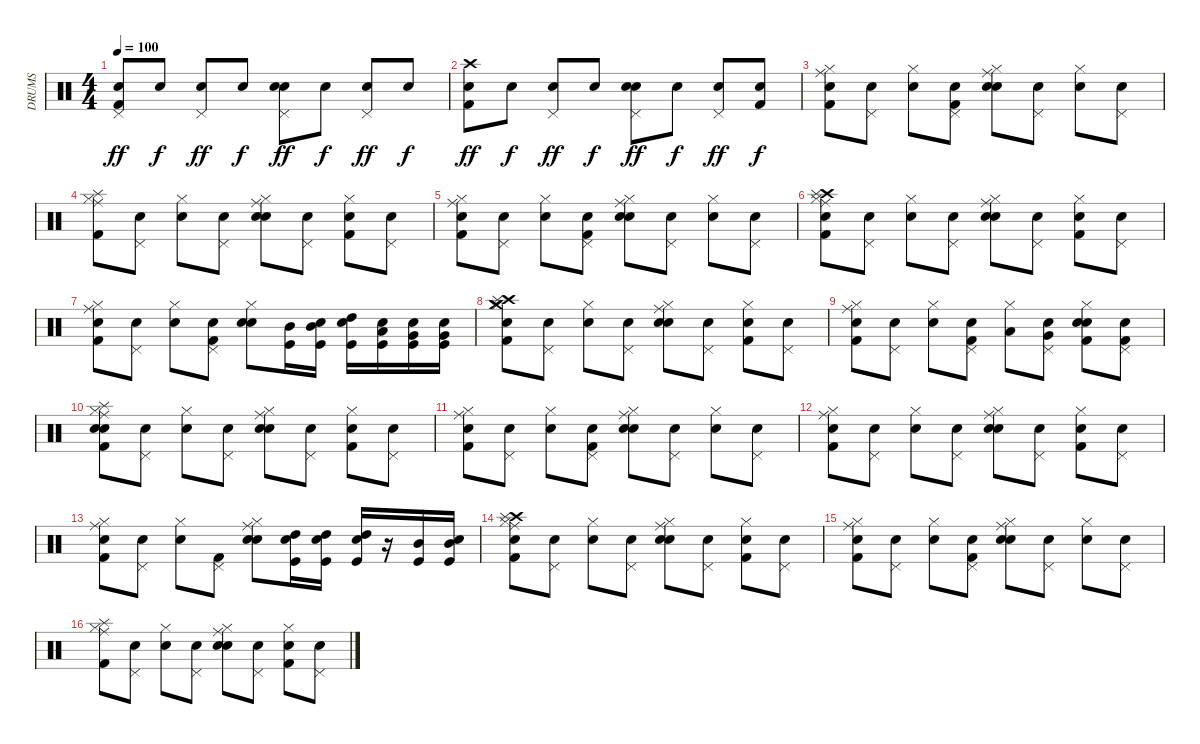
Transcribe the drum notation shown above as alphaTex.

\track ("DRUMS" "DRUMS") {instrument percussion}
\staff {score}
\articulation defaults
\ts (4 4)
\tempo 100
\clef neutral
\ks c
("Snare (hit)" "Kick (hit) 2" "Pedal Hi-Hat (hit)").8{dy ff} "Snare (hit)".8{dy f} ("Snare (hit)" "Pedal Hi-Hat (hit)").8{dy ff} "Snare (hit)".8{dy f} ("Snare (hit)" "Electric Snare (hit)" "Pedal Hi-Hat (hit)").8{dy ff} "Snare (hit)".8{dy f} ("Snare (hit)" "Pedal Hi-Hat (hit)").8{dy ff} "Snare (hit)".8{dy f} |
("Snare (hit)" "Kick (hit) 2" "Crash high (hit)").8{dy ff} "Snare (hit)".8{dy f} ("Snare (hit)" "Pedal Hi-Hat (hit)").8{dy ff} "Snare (hit)".8{dy f} ("Snare (hit)" "Electric Snare (hit)" "Pedal Hi-Hat (hit)").8{dy ff} "Snare (hit)".8{dy f} ("Snare (hit)" "Pedal Hi-Hat (hit)").8{dy ff} ("Snare (hit)" "Kick (hit) 2").8{dy f} |
("Snare (hit)" "Ride (middle)" "Hi-Hat (closed)" "Kick (hit) 2").8 ("Snare (hit)" "Pedal Hi-Hat (hit)").8 ("Snare (hit)" "Hi-Hat (closed)").8 ("Snare (hit)" "Pedal Hi-Hat (hit)" "Kick (hit) 2").8 ("Snare (hit)" "Ride (middle)" "Hi-Hat (closed)" "Snare (hit) 2").8 ("Snare (hit)" "Pedal Hi-Hat (hit)").8 ("Snare (hit)" "Hi-Hat (closed)").8 ("Snare (hit)" "Pedal Hi-Hat (hit)").8 |
("Splash (hit)" "Kick (hit) 2" "Ride (middle)" "Hi-Hat (closed)").8 ("Snare (hit)" "Pedal Hi-Hat (hit)").8 ("Snare (hit)" "Hi-Hat (closed)").8 ("Snare (hit)" "Pedal Hi-Hat (hit)").8 ("Snare (hit)" "Ride (middle)" "Hi-Hat (closed)" "Snare (hit) 2").8 ("Snare (hit)" "Pedal Hi-Hat (hit)").8 ("Snare (hit)" "Hi-Hat (closed)" "Kick (hit) 2").8 ("Snare (hit)" "Pedal Hi-Hat (hit)").8 |
("Snare (hit)" "Ride (middle)" "Hi-Hat (closed)" "Kick (hit) 2").8 ("Snare (hit)" "Pedal Hi-Hat (hit)").8 ("Snare (hit)" "Hi-Hat (closed)").8 ("Snare (hit)" "Pedal Hi-Hat (hit)" "Kick (hit) 2").8 ("Snare (hit)" "Ride (middle)" "Hi-Hat (closed)" "Snare (hit) 2").8 ("Snare (hit)" "Pedal Hi-Hat (hit)").8 ("Snare (hit)" "Hi-Hat (closed)").8 ("Snare (hit)" "Pedal Hi-Hat (hit)").8 |
("Snare (hit)" "Hi-Hat (closed)" "Ride (middle)" "Kick (hit) 2" "Crash high (hit)" "Splash (hit)").8 ("Snare (hit)" "Pedal Hi-Hat (hit)").8 ("Snare (hit)" "Hi-Hat (closed)").8 ("Snare (hit)" "Pedal Hi-Hat (hit)").8 ("Snare (hit)" "Ride (middle)" "Hi-Hat (closed)" "Snare (hit) 2").8 ("Snare (hit)" "Pedal Hi-Hat (hit)").8 ("Snare (hit)" "Hi-Hat (closed)" "Kick (hit) 2").8 ("Snare (hit)" "Pedal Hi-Hat (hit)").8 |
("Snare (hit)" "Ride (middle)" "Hi-Hat (closed)" "Kick (hit) 2").8 ("Snare (hit)" "Pedal Hi-Hat (hit)").8 ("Snare (hit)" "Hi-Hat (closed)").8 ("Snare (hit)" "Pedal Hi-Hat (hit)" "Kick (hit) 2").8 ("Snare (hit)" "Hi-Hat (closed)" "Snare (hit) 2").8 ("Kick (hit)" "Mid Tom (hit)").16 ("Snare (hit)" "Kick (hit)" "Mid Tom (hit)").16 ("Snare (hit)" "Kick (hit)" "High Tom (hit)").16 ("Snare (hit)" "Kick (hit)" "Low Tom (hit)").16 ("Snare (hit)" "Very Low Tom (hit)" "Kick (hit)").16 ("Snare (hit)" "Very Low Tom (hit)" "Kick (hit)").16 |
("Snare (hit)" "Crash medium (hit)" "Crash high (hit)" "Splash (hit)" "Kick (hit) 2" "Hi-Hat (closed)").8 ("Snare (hit)" "Pedal Hi-Hat (hit)").8 ("Snare (hit)" "Hi-Hat (closed)").8 ("Snare (hit)" "Pedal Hi-Hat (hit)").8 ("Snare (hit)" "Ride (middle)" "Hi-Hat (closed)" "Snare (hit) 2").8 ("Snare (hit)" "Pedal Hi-Hat (hit)").8 ("Snare (hit)" "Hi-Hat (closed)" "Kick (hit) 2").8 ("Snare (hit)" "Pedal Hi-Hat (hit)").8 |
("Snare (hit)" "Ride (middle)" "Hi-Hat (closed)" "Kick (hit) 2").8 ("Snare (hit)" "Pedal Hi-Hat (hit)").8 ("Snare (hit)" "Hi-Hat (closed)").8 ("Snare (hit)" "Pedal Hi-Hat (hit)" "Kick (hit) 2").8 ("Hi-Hat (closed)" "Low Tom (hit)").8 ("Snare (hit)" "Pedal Hi-Hat (hit)" "Very Low Tom (hit)").8 ("Snare (hit)" "Hi-Hat (closed)" "Snare (hit) 2" "Kick (hit) 2").8 ("Pedal Hi-Hat (hit)" "Snare (hit) 2" "Kick (hit) 2").8 |
("Snare (hit)" "Ride (middle)" "Hi-Hat (closed)" "Kick (hit) 2" "Snare (hit) 2" "Splash (hit)").8 ("Snare (hit)" "Pedal Hi-Hat (hit)").8 ("Snare (hit)" "Hi-Hat (closed)").8 ("Snare (hit)" "Pedal Hi-Hat (hit)").8 ("Snare (hit)" "Ride (middle)" "Hi-Hat (closed)" "Snare (hit) 2").8 ("Snare (hit)" "Pedal Hi-Hat (hit)").8 ("Snare (hit)" "Hi-Hat (closed)" "Kick (hit) 2").8 ("Snare (hit)" "Pedal Hi-Hat (hit)").8 |
("Snare (hit)" "Ride (middle)" "Hi-Hat (closed)" "Kick (hit) 2").8 ("Snare (hit)" "Pedal Hi-Hat (hit)").8 ("Snare (hit)" "Hi-Hat (closed)").8 ("Snare (hit)" "Pedal Hi-Hat (hit)" "Kick (hit) 2").8 ("Snare (hit)" "Ride (middle)" "Hi-Hat (closed)" "Snare (hit) 2").8 ("Snare (hit)" "Pedal Hi-Hat (hit)").8 ("Snare (hit)" "Hi-Hat (closed)").8 ("Snare (hit)" "Pedal Hi-Hat (hit)").8 |
("Snare (hit)" "Kick (hit) 2" "Ride (middle)" "Hi-Hat (closed)").8 ("Snare (hit)" "Pedal Hi-Hat (hit)").8 ("Snare (hit)" "Hi-Hat (closed)").8 ("Snare (hit)" "Pedal Hi-Hat (hit)").8 ("Snare (hit)" "Ride (middle)" "Hi-Hat (closed)" "Snare (hit) 2").8 ("Snare (hit)" "Pedal Hi-Hat (hit)").8 ("Snare (hit)" "Hi-Hat (closed)" "Kick (hit) 2").8 ("Snare (hit)" "Pedal Hi-Hat (hit)").8 |
("Snare (hit)" "Ride (middle)" "Hi-Hat (closed)" "Kick (hit) 2").8 ("Snare (hit)" "Pedal Hi-Hat (hit)").8 ("Snare (hit)" "Hi-Hat (closed)").8 ("Kick (hit) 2" "Pedal Hi-Hat (hit)").8 ("Snare (hit)" "Snare (hit) 2" "Ride (middle)" "Hi-Hat (closed)").8 ("Snare (hit)" "Kick (hit)" "High Tom (hit)").16 ("Snare (hit)" "Kick (hit)" "High Tom (hit)").16 ("Snare (hit)" "Kick (hit)" "High Tom (hit)").16 r.16 ("Kick (hit)" "Mid Tom (hit)").16 ("Snare (hit)" "Kick (hit)" "Mid Tom (hit)").16 |
("Snare (hit)" "Hi-Hat (closed)" "Ride (middle)" "Kick (hit) 2" "Crash high (hit)" "Splash (hit)").8 ("Snare (hit)" "Pedal Hi-Hat (hit)").8 ("Snare (hit)" "Hi-Hat (closed)").8 ("Snare (hit)" "Pedal Hi-Hat (hit)").8 ("Snare (hit)" "Ride (middle)" "Hi-Hat (closed)" "Snare (hit) 2").8 ("Snare (hit)" "Pedal Hi-Hat (hit)").8 ("Snare (hit)" "Hi-Hat (closed)" "Kick (hit) 2").8 ("Snare (hit)" "Pedal Hi-Hat (hit)").8 |
("Snare (hit)" "Ride (middle)" "Hi-Hat (closed)" "Kick (hit) 2").8 ("Snare (hit)" "Pedal Hi-Hat (hit)").8 ("Snare (hit)" "Hi-Hat (closed)").8 ("Snare (hit)" "Pedal Hi-Hat (hit)" "Kick (hit) 2").8 ("Snare (hit)" "Ride (middle)" "Hi-Hat (closed)" "Snare (hit) 2").8 ("Snare (hit)" "Pedal Hi-Hat (hit)").8 ("Snare (hit)" "Hi-Hat (closed)").8 ("Snare (hit)" "Pedal Hi-Hat (hit)").8 |
("Splash (hit)" "Kick (hit) 2" "Ride (middle)" "Hi-Hat (closed)").8 ("Snare (hit)" "Pedal Hi-Hat (hit)").8 ("Snare (hit)" "Hi-Hat (closed)").8 ("Snare (hit)" "Pedal Hi-Hat (hit)").8 ("Snare (hit)" "Ride (middle)" "Hi-Hat (closed)" "Snare (hit) 2").8 ("Snare (hit)" "Pedal Hi-Hat (hit)").8 ("Snare (hit)" "Hi-Hat (closed)" "Kick (hit) 2").8 ("Snare (hit)" "Pedal Hi-Hat (hit)").8
